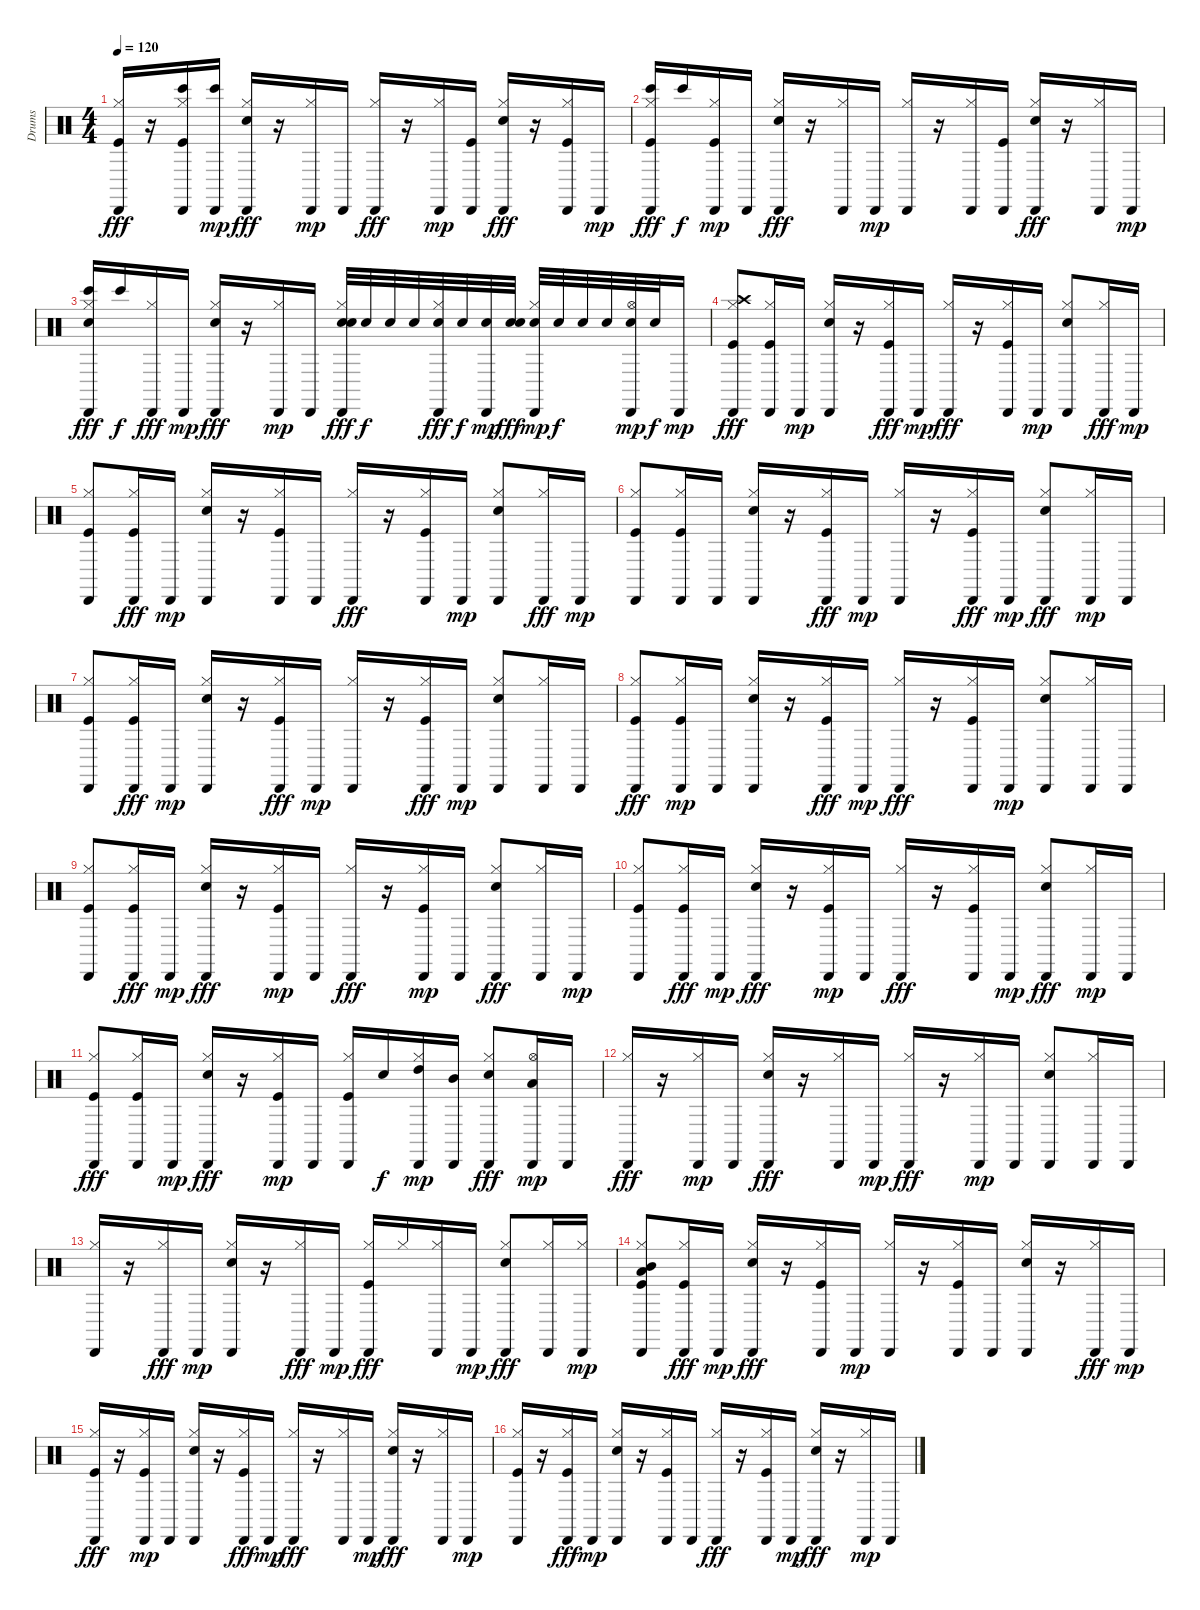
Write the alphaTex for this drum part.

\track ("Drums" "Drums") {instrument percussion}
\staff {score}
\articulation defaults
\ts (4 4)
\tempo 120
\clef neutral
\ks c
("Hi-Hat (closed)" "Cabasa (hit)" "Kick (hit)").16{dy fff} r.16 ("Hi-Hat (closed)" "Cabasa (hit)" "Kick (hit)" "Bongo High (hit)").16 ("Cabasa (hit)" "Bongo High (hit)").16{dy mp} ("Snare (hit) 2" "Cabasa (hit)" "Hi-Hat (closed)").16{dy fff} r.16 ("Hi-Hat (closed)" "Cabasa (hit)").16{dy mp} "Cabasa (hit)".16 ("Cabasa (hit)" "Hi-Hat (closed)").16{dy fff} r.16 ("Hi-Hat (closed)" "Cabasa (hit)").16{dy mp} ("Kick (hit)" "Cabasa (hit)").16 ("Cabasa (hit)" "Snare (hit) 2" "Hi-Hat (closed)").16{dy fff} r.16 ("Cabasa (hit)" "Hi-Hat (closed)" "Kick (hit)").16 "Cabasa (hit)".16{dy mp} |
("Cabasa (hit)" "Hi-Hat (closed)" "Bongo High (hit)" "Kick (hit)").16{dy fff} "Bongo High (hit)".16{dy f} ("Kick (hit)" "Hi-Hat (closed)" "Cabasa (hit)").16{dy mp} "Cabasa (hit)".16 ("Snare (hit) 2" "Cabasa (hit)" "Hi-Hat (closed)").16{dy fff} r.16 ("Cabasa (hit)" "Hi-Hat (closed)").16 "Cabasa (hit)".16{dy mp} ("Hi-Hat (closed)" "Cabasa (hit)").16 r.16 ("Hi-Hat (closed)" "Cabasa (hit)").16 ("Kick (hit)" "Cabasa (hit)").16 ("Cabasa (hit)" "Hi-Hat (closed)" "Snare (hit) 2").16{dy fff} r.16 ("Cabasa (hit)" "Hi-Hat (closed)").16 "Cabasa (hit)".16{dy mp} |
("Snare (hit) 2" "Cabasa (hit)" "Hi-Hat (closed)" "Bongo High (hit)").16{dy fff} "Bongo High (hit)".16{dy f} ("Cabasa (hit)" "Hi-Hat (closed)").16{dy fff} "Cabasa (hit)".16{dy mp} ("Cabasa (hit)" "Snare (hit) 2" "Hi-Hat (closed)").16{dy fff} r.16 ("Hi-Hat (closed)" "Cabasa (hit)").16{dy mp} "Cabasa (hit)".16 ("Hi-Hat (closed)" "Cabasa (hit)" "Electric Snare (hit)" "Electric Snare (hit)").32{dy fff} "Electric Snare (hit)".32{dy f} "Electric Snare (hit)".32 "Electric Snare (hit)".32 ("Electric Snare (hit)" "Cabasa (hit)" "Hi-Hat (closed)").32{dy fff} "Electric Snare (hit)".32{dy f} ("Cabasa (hit)" "Electric Snare (hit)").32{dy mp} ("Electric Snare (hit)" "Electric Snare (hit)").32{dy fff} ("Hi-Hat (closed)" "Cabasa (hit)" "Electric Snare (hit)").32{dy mp} "Electric Snare (hit)".32{dy f} "Electric Snare (hit)".32 "Electric Snare (hit)".32 ("Hi-Hat (open)" "Cabasa (hit)" "Electric Snare (hit)").32{dy mp} "Electric Snare (hit)".32{dy f} "Cabasa (hit)".16{dy mp} |
("Crash high (hit)" "Hi-Hat (closed)" "Cabasa (hit)" "Kick (hit)").8{dy fff} ("Cabasa (hit)" "Kick (hit)" "Hi-Hat (closed)").16 "Cabasa (hit)".16{dy mp} ("Snare (hit) 2" "Hi-Hat (closed)" "Cabasa (hit)").16 r.16 ("Cabasa (hit)" "Hi-Hat (closed)" "Kick (hit)").16{dy fff} "Cabasa (hit)".16{dy mp} ("Cabasa (hit)" "Hi-Hat (closed)").16{dy fff} r.16 ("Cabasa (hit)" "Hi-Hat (closed)" "Kick (hit)").16 "Cabasa (hit)".16{dy mp} ("Snare (hit) 2" "Hi-Hat (closed)" "Cabasa (hit)").8 ("Cabasa (hit)" "Hi-Hat (closed)").16{dy fff} "Cabasa (hit)".16{dy mp} |
("Kick (hit)" "Hi-Hat (closed)" "Cabasa (hit)").8 ("Kick (hit)" "Cabasa (hit)" "Hi-Hat (closed)").16{dy fff} "Cabasa (hit)".16{dy mp} ("Hi-Hat (closed)" "Cabasa (hit)" "Snare (hit) 2").16 r.16 ("Hi-Hat (closed)" "Kick (hit)" "Cabasa (hit)").16 "Cabasa (hit)".16 ("Cabasa (hit)" "Hi-Hat (closed)").16{dy fff} r.16 ("Cabasa (hit)" "Hi-Hat (closed)" "Kick (hit)").16 "Cabasa (hit)".16{dy mp} ("Hi-Hat (closed)" "Cabasa (hit)" "Snare (hit) 2").8 ("Cabasa (hit)" "Hi-Hat (closed)").16{dy fff} "Cabasa (hit)".16{dy mp} |
("Kick (hit)" "Hi-Hat (closed)" "Cabasa (hit)").8 ("Kick (hit)" "Hi-Hat (closed)" "Cabasa (hit)").16 "Cabasa (hit)".16 ("Hi-Hat (closed)" "Cabasa (hit)" "Snare (hit) 2").16 r.16 ("Hi-Hat (closed)" "Cabasa (hit)" "Kick (hit)").16{dy fff} "Cabasa (hit)".16{dy mp} ("Hi-Hat (closed)" "Cabasa (hit)").16 r.16 ("Cabasa (hit)" "Kick (hit)" "Hi-Hat (closed)").16{dy fff} "Cabasa (hit)".16{dy mp} ("Snare (hit) 2" "Cabasa (hit)" "Hi-Hat (closed)").8{dy fff} ("Hi-Hat (closed)" "Cabasa (hit)").16{dy mp} "Cabasa (hit)".16 |
("Kick (hit)" "Hi-Hat (closed)" "Cabasa (hit)").8 ("Cabasa (hit)" "Hi-Hat (closed)" "Kick (hit)").16{dy fff} "Cabasa (hit)".16{dy mp} ("Snare (hit) 2" "Hi-Hat (closed)" "Cabasa (hit)").16 r.16 ("Kick (hit)" "Cabasa (hit)" "Hi-Hat (closed)").16{dy fff} "Cabasa (hit)".16{dy mp} ("Hi-Hat (closed)" "Cabasa (hit)").16 r.16 ("Kick (hit)" "Cabasa (hit)" "Hi-Hat (closed)").16{dy fff} "Cabasa (hit)".16{dy mp} ("Hi-Hat (closed)" "Cabasa (hit)" "Snare (hit) 2").8 ("Hi-Hat (closed)" "Cabasa (hit)").16 "Cabasa (hit)".16 |
("Kick (hit)" "Cabasa (hit)" "Hi-Hat (closed)").8{dy fff} ("Kick (hit)" "Hi-Hat (closed)" "Cabasa (hit)").16{dy mp} "Cabasa (hit)".16 ("Snare (hit) 2" "Hi-Hat (closed)" "Cabasa (hit)").16 r.16 ("Cabasa (hit)" "Hi-Hat (closed)" "Kick (hit)").16{dy fff} "Cabasa (hit)".16{dy mp} ("Cabasa (hit)" "Hi-Hat (closed)").16{dy fff} r.16 ("Cabasa (hit)" "Hi-Hat (closed)" "Kick (hit)").16 "Cabasa (hit)".16{dy mp} ("Hi-Hat (closed)" "Cabasa (hit)" "Snare (hit) 2").8 ("Hi-Hat (closed)" "Cabasa (hit)").16 "Cabasa (hit)".16 |
("Kick (hit)" "Hi-Hat (closed)" "Cabasa (hit)").8 ("Kick (hit)" "Cabasa (hit)" "Hi-Hat (closed)").16{dy fff} "Cabasa (hit)".16{dy mp} ("Snare (hit) 2" "Cabasa (hit)" "Hi-Hat (closed)").16{dy fff} r.16 ("Kick (hit)" "Hi-Hat (closed)" "Cabasa (hit)").16{dy mp} "Cabasa (hit)".16 ("Cabasa (hit)" "Hi-Hat (closed)").16{dy fff} r.16 ("Kick (hit)" "Hi-Hat (closed)" "Cabasa (hit)").16{dy mp} "Cabasa (hit)".16 ("Cabasa (hit)" "Snare (hit) 2" "Hi-Hat (closed)").8{dy fff} ("Cabasa (hit)" "Hi-Hat (closed)").16 "Cabasa (hit)".16{dy mp} |
("Hi-Hat (closed)" "Kick (hit)" "Cabasa (hit)").8 ("Kick (hit)" "Cabasa (hit)" "Hi-Hat (closed)").16{dy fff} "Cabasa (hit)".16{dy mp} ("Snare (hit) 2" "Cabasa (hit)" "Hi-Hat (closed)").16{dy fff} r.16 ("Hi-Hat (closed)" "Kick (hit)" "Cabasa (hit)").16{dy mp} "Cabasa (hit)".16 ("Cabasa (hit)" "Hi-Hat (closed)").16{dy fff} r.16 ("Hi-Hat (closed)" "Cabasa (hit)" "Kick (hit)").16 "Cabasa (hit)".16{dy mp} ("Cabasa (hit)" "Hi-Hat (closed)" "Snare (hit) 2").8{dy fff} ("Hi-Hat (closed)" "Cabasa (hit)").16{dy mp} "Cabasa (hit)".16 |
("Kick (hit)" "Cabasa (hit)" "Hi-Hat (closed)").8{dy fff} ("Kick (hit)" "Cabasa (hit)" "Hi-Hat (closed)").16 "Cabasa (hit)".16{dy mp} ("Cabasa (hit)" "Snare (hit) 2" "Hi-Hat (closed)").16{dy fff} r.16 ("Kick (hit)" "Hi-Hat (closed)" "Cabasa (hit)").16{dy mp} "Cabasa (hit)".16 ("Hi-Hat (closed)" "Kick (hit)" "Cabasa (hit)").16 "Snare (hit) 2".16{dy f} ("High Tom (hit)" "Hi-Hat (closed)" "Cabasa (hit)").16{dy mp} ("Mid Tom (hit)" "Cabasa (hit)").16 ("Cabasa (hit)" "Snare (hit) 2" "Hi-Hat (closed)").8{dy fff} ("Hi-Hat (open)" "Low Tom (hit)" "Cabasa (hit)").16{dy mp} "Cabasa (hit)".16 |
("Cabasa (hit)" "Hi-Hat (closed)").16{dy fff} r.16 ("Hi-Hat (closed)" "Cabasa (hit)").16{dy mp} "Cabasa (hit)".16 ("Snare (hit) 2" "Cabasa (hit)" "Hi-Hat (closed)").16{dy fff} r.16 ("Cabasa (hit)" "Hi-Hat (closed)").16 "Cabasa (hit)".16{dy mp} ("Cabasa (hit)" "Hi-Hat (closed)").16{dy fff} r.16 ("Hi-Hat (closed)" "Cabasa (hit)").16{dy mp} "Cabasa (hit)".16 ("Hi-Hat (closed)" "Cabasa (hit)" "Snare (hit) 2").8 ("Hi-Hat (closed)" "Cabasa (hit)").16 "Cabasa (hit)".16 |
("Hi-Hat (closed)" "Cabasa (hit)").16 r.16 ("Cabasa (hit)" "Hi-Hat (closed)").16{dy fff} "Cabasa (hit)".16{dy mp} ("Hi-Hat (closed)" "Snare (hit) 2" "Cabasa (hit)").16 r.16 ("Cabasa (hit)" "Hi-Hat (closed)").16{dy fff} "Cabasa (hit)".16{dy mp} ("Cabasa (hit)" "Kick (hit)" "Hi-Hat (closed)").16{dy fff} "Hi-Hat (closed)".16 ("Cabasa (hit)" "Hi-Hat (closed)").16 "Cabasa (hit)".16{dy mp} ("Cabasa (hit)" "Hi-Hat (closed)" "Snare (hit) 2").8{dy fff} ("Cabasa (hit)" "Hi-Hat (closed)").16 ("Hi-Hat (closed)" "Cabasa (hit)").16{dy mp} |
("Low Floor Tom (hit)" "Kick (hit)" "Mid Tom (hit)" "Hi-Hat (closed)" "Cabasa (hit)").8 ("Cabasa (hit)" "Hi-Hat (closed)" "Kick (hit)").16{dy fff} "Cabasa (hit)".16{dy mp} ("Cabasa (hit)" "Snare (hit) 2" "Hi-Hat (closed)").16{dy fff} r.16 ("Cabasa (hit)" "Hi-Hat (closed)" "Kick (hit)").16 "Cabasa (hit)".16{dy mp} ("Hi-Hat (closed)" "Cabasa (hit)").16 r.16 ("Kick (hit)" "Hi-Hat (closed)" "Cabasa (hit)").16 "Cabasa (hit)".16 ("Hi-Hat (closed)" "Cabasa (hit)" "Snare (hit) 2").16 r.16 ("Cabasa (hit)" "Hi-Hat (closed)").16{dy fff} "Cabasa (hit)".16{dy mp} |
("Cabasa (hit)" "Kick (hit)" "Hi-Hat (closed)").16{dy fff} r.16 ("Kick (hit)" "Hi-Hat (closed)" "Cabasa (hit)").16{dy mp} "Cabasa (hit)".16 ("Hi-Hat (closed)" "Snare (hit) 2" "Cabasa (hit)").16 r.16 ("Hi-Hat (closed)" "Cabasa (hit)" "Kick (hit)").16{dy fff} "Cabasa (hit)".16{dy mp} ("Cabasa (hit)" "Hi-Hat (closed)").16{dy fff} r.16 ("Cabasa (hit)" "Hi-Hat (closed)").16 "Cabasa (hit)".16{dy mp} ("Cabasa (hit)" "Hi-Hat (closed)" "Snare (hit) 2").16{dy fff} r.16 ("Cabasa (hit)" "Hi-Hat (closed)").16 "Cabasa (hit)".16{dy mp} |
("Kick (hit)" "Hi-Hat (closed)" "Cabasa (hit)").16 r.16 ("Hi-Hat (closed)" "Cabasa (hit)" "Kick (hit)").16{dy fff} "Cabasa (hit)".16{dy mp} ("Snare (hit) 2" "Hi-Hat (closed)" "Cabasa (hit)").16 r.16 ("Kick (hit)" "Hi-Hat (closed)" "Cabasa (hit)").16 "Cabasa (hit)".16 ("Cabasa (hit)" "Hi-Hat (closed)").16{dy fff} r.16 ("Hi-Hat (closed)" "Cabasa (hit)" "Kick (hit)").16 "Cabasa (hit)".16{dy mp} ("Cabasa (hit)" "Snare (hit) 2" "Hi-Hat (closed)").16{dy fff} r.16 ("Hi-Hat (closed)" "Cabasa (hit)").16{dy mp} "Cabasa (hit)".16
